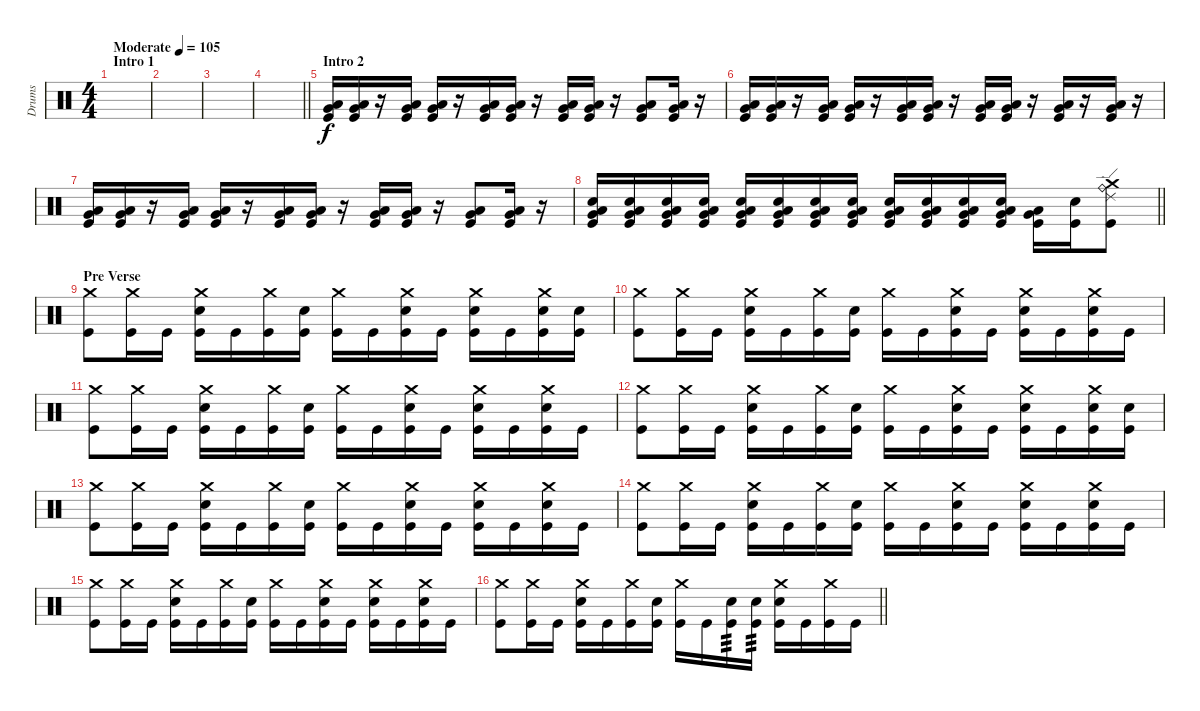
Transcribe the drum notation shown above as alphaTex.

\track ("Drums" "Drums") {instrument percussion}
\staff {score}
\articulation defaults
\ts (4 4)
\section ("" "Intro 1")
\tempo (105 "Moderate")
\clef neutral
\ks c
|
|
|
\barLineRight lightlight
|
\section ("" "Intro 2")
("Very Low Tom (hit)" "Low Floor Tom (hit)" "Kick (hit)").16 ("Very Low Tom (hit)" "Low Floor Tom (hit)" "Kick (hit)").16 r.16 ("Very Low Tom (hit)" "Low Floor Tom (hit)" "Kick (hit)").16 ("Very Low Tom (hit)" "Low Floor Tom (hit)" "Kick (hit)").16 r.16 ("Very Low Tom (hit)" "Low Floor Tom (hit)" "Kick (hit)").16 ("Very Low Tom (hit)" "Low Floor Tom (hit)" "Kick (hit)").16 r.16 ("Very Low Tom (hit)" "Low Floor Tom (hit)" "Kick (hit)").16 ("Very Low Tom (hit)" "Low Floor Tom (hit)" "Kick (hit)").16 r.16 ("Very Low Tom (hit)" "Low Floor Tom (hit)" "Kick (hit)").8 ("Very Low Tom (hit)" "Low Floor Tom (hit)" "Kick (hit)").16 r.16 |
("Very Low Tom (hit)" "Low Floor Tom (hit)" "Kick (hit)").16 ("Very Low Tom (hit)" "Low Floor Tom (hit)" "Kick (hit)").16 r.16 ("Very Low Tom (hit)" "Low Floor Tom (hit)" "Kick (hit)").16 ("Very Low Tom (hit)" "Low Floor Tom (hit)" "Kick (hit)").16 r.16 ("Very Low Tom (hit)" "Low Floor Tom (hit)" "Kick (hit)").16 ("Very Low Tom (hit)" "Low Floor Tom (hit)" "Kick (hit)").16 r.16 ("Very Low Tom (hit)" "Low Floor Tom (hit)" "Kick (hit)").16 ("Very Low Tom (hit)" "Low Floor Tom (hit)" "Kick (hit)").16 r.16 ("Very Low Tom (hit)" "Low Floor Tom (hit)" "Kick (hit)").16 r.16 ("Very Low Tom (hit)" "Low Floor Tom (hit)" "Kick (hit)").16 r.16 |
("Very Low Tom (hit)" "Low Floor Tom (hit)" "Kick (hit)").16 ("Very Low Tom (hit)" "Low Floor Tom (hit)" "Kick (hit)").16 r.16 ("Very Low Tom (hit)" "Low Floor Tom (hit)" "Kick (hit)").16 ("Very Low Tom (hit)" "Low Floor Tom (hit)" "Kick (hit)").16 r.16 ("Very Low Tom (hit)" "Low Floor Tom (hit)" "Kick (hit)").16 ("Very Low Tom (hit)" "Low Floor Tom (hit)" "Kick (hit)").16 r.16 ("Very Low Tom (hit)" "Low Floor Tom (hit)" "Kick (hit)").16 ("Very Low Tom (hit)" "Low Floor Tom (hit)" "Kick (hit)").16 r.16 ("Very Low Tom (hit)" "Low Floor Tom (hit)" "Kick (hit)").8 ("Very Low Tom (hit)" "Low Floor Tom (hit)" "Kick (hit)").16 r.16{volume 4} |
\barLineRight lightlight
("Very Low Tom (hit)" "Low Floor Tom (hit)" "Snare (hit) 2" "Kick (hit)").16{volume 16} ("Very Low Tom (hit)" "Low Floor Tom (hit)" "Snare (hit) 2" "Kick (hit)").16 ("Very Low Tom (hit)" "Low Floor Tom (hit)" "Snare (hit) 2" "Kick (hit)").16 ("Very Low Tom (hit)" "Low Floor Tom (hit)" "Snare (hit) 2" "Kick (hit)").16 ("Very Low Tom (hit)" "Low Floor Tom (hit)" "Snare (hit) 2" "Kick (hit)").16 ("Very Low Tom (hit)" "Low Floor Tom (hit)" "Snare (hit) 2" "Kick (hit)").16 ("Very Low Tom (hit)" "Low Floor Tom (hit)" "Snare (hit) 2" "Kick (hit)").16 ("Very Low Tom (hit)" "Low Floor Tom (hit)" "Snare (hit) 2" "Kick (hit)").16 ("Very Low Tom (hit)" "Low Floor Tom (hit)" "Snare (hit) 2" "Kick (hit)").16 ("Very Low Tom (hit)" "Low Floor Tom (hit)" "Snare (hit) 2" "Kick (hit)").16 ("Very Low Tom (hit)" "Low Floor Tom (hit)" "Snare (hit) 2" "Kick (hit)").16 ("Very Low Tom (hit)" "Low Floor Tom (hit)" "Snare (hit) 2" "Kick (hit)").16 ("Very Low Tom (hit)" "Low Floor Tom (hit)" "Kick (hit)").16 ("Snare (hit) 2" "Kick (hit)").16 ("Ride (edge) 2" "Crash medium (hit)" "Ride (bell)" "Kick (hit)").8 |
\section ("" "Pre Verse")
("Crash medium (hit)" "Kick (hit)").8 ("Crash medium (hit)" "Kick (hit)").16 "Kick (hit)".16 ("Crash medium (hit)" "Snare (hit) 2" "Kick (hit)").16 "Kick (hit)".16 ("Crash medium (hit)" "Kick (hit)").16 ("Snare (hit) 2" "Kick (hit)").16 ("Crash medium (hit)" "Kick (hit)").16 "Kick (hit)".16 ("Crash medium (hit)" "Snare (hit) 2" "Kick (hit)").16 "Kick (hit)".16 ("Crash medium (hit)" "Snare (hit) 2" "Kick (hit)").16 "Kick (hit)".16 ("Crash medium (hit)" "Snare (hit) 2" "Kick (hit)").16 ("Snare (hit) 2" "Kick (hit)").16 |
("Crash medium (hit)" "Kick (hit)").8 ("Crash medium (hit)" "Kick (hit)").16 "Kick (hit)".16 ("Crash medium (hit)" "Snare (hit) 2" "Kick (hit)").16 "Kick (hit)".16 ("Crash medium (hit)" "Kick (hit)").16 ("Snare (hit) 2" "Kick (hit)").16 ("Crash medium (hit)" "Kick (hit)").16 "Kick (hit)".16 ("Crash medium (hit)" "Snare (hit) 2" "Kick (hit)").16 "Kick (hit)".16 ("Crash medium (hit)" "Snare (hit) 2" "Kick (hit)").16 "Kick (hit)".16 ("Crash medium (hit)" "Snare (hit) 2" "Kick (hit)").16 "Kick (hit)".16 |
("Crash medium (hit)" "Kick (hit)").8 ("Crash medium (hit)" "Kick (hit)").16 "Kick (hit)".16 ("Crash medium (hit)" "Snare (hit) 2" "Kick (hit)").16 "Kick (hit)".16 ("Crash medium (hit)" "Kick (hit)").16 ("Snare (hit) 2" "Kick (hit)").16 ("Crash medium (hit)" "Kick (hit)").16 "Kick (hit)".16 ("Crash medium (hit)" "Snare (hit) 2" "Kick (hit)").16 "Kick (hit)".16 ("Crash medium (hit)" "Snare (hit) 2" "Kick (hit)").16 "Kick (hit)".16 ("Crash medium (hit)" "Snare (hit) 2" "Kick (hit)").16 "Kick (hit)".16 |
("Crash medium (hit)" "Kick (hit)").8 ("Crash medium (hit)" "Kick (hit)").16 "Kick (hit)".16 ("Crash medium (hit)" "Snare (hit) 2" "Kick (hit)").16 "Kick (hit)".16 ("Crash medium (hit)" "Kick (hit)").16 ("Snare (hit) 2" "Kick (hit)").16 ("Crash medium (hit)" "Kick (hit)").16 "Kick (hit)".16 ("Crash medium (hit)" "Snare (hit) 2" "Kick (hit)").16 "Kick (hit)".16 ("Crash medium (hit)" "Snare (hit) 2" "Kick (hit)").16 "Kick (hit)".16 ("Crash medium (hit)" "Snare (hit) 2" "Kick (hit)").16 ("Snare (hit) 2" "Kick (hit)").16 |
("Crash medium (hit)" "Kick (hit)").8 ("Crash medium (hit)" "Kick (hit)").16 "Kick (hit)".16 ("Crash medium (hit)" "Snare (hit) 2" "Kick (hit)").16 "Kick (hit)".16 ("Crash medium (hit)" "Kick (hit)").16 ("Snare (hit) 2" "Kick (hit)").16 ("Crash medium (hit)" "Kick (hit)").16 "Kick (hit)".16 ("Crash medium (hit)" "Snare (hit) 2" "Kick (hit)").16 "Kick (hit)".16 ("Crash medium (hit)" "Snare (hit) 2" "Kick (hit)").16 "Kick (hit)".16 ("Crash medium (hit)" "Snare (hit) 2" "Kick (hit)").16 "Kick (hit)".16 |
("Crash medium (hit)" "Kick (hit)").8 ("Crash medium (hit)" "Kick (hit)").16 "Kick (hit)".16 ("Crash medium (hit)" "Snare (hit) 2" "Kick (hit)").16 "Kick (hit)".16 ("Crash medium (hit)" "Kick (hit)").16 ("Snare (hit) 2" "Kick (hit)").16 ("Crash medium (hit)" "Kick (hit)").16 "Kick (hit)".16 ("Crash medium (hit)" "Snare (hit) 2" "Kick (hit)").16 "Kick (hit)".16 ("Crash medium (hit)" "Snare (hit) 2" "Kick (hit)").16 "Kick (hit)".16 ("Crash medium (hit)" "Snare (hit) 2" "Kick (hit)").16 "Kick (hit)".16 |
("Crash medium (hit)" "Kick (hit)").8 ("Crash medium (hit)" "Kick (hit)").16 "Kick (hit)".16 ("Crash medium (hit)" "Snare (hit) 2" "Kick (hit)").16 "Kick (hit)".16 ("Crash medium (hit)" "Kick (hit)").16 ("Snare (hit) 2" "Kick (hit)").16 ("Crash medium (hit)" "Kick (hit)").16 "Kick (hit)".16 ("Crash medium (hit)" "Snare (hit) 2" "Kick (hit)").16 "Kick (hit)".16 ("Crash medium (hit)" "Snare (hit) 2" "Kick (hit)").16 "Kick (hit)".16 ("Crash medium (hit)" "Snare (hit) 2" "Kick (hit)").16 "Kick (hit)".16 |
\barLineRight lightlight
("Crash medium (hit)" "Kick (hit)").8 ("Crash medium (hit)" "Kick (hit)").16 "Kick (hit)".16 ("Crash medium (hit)" "Snare (hit) 2" "Kick (hit)").16 "Kick (hit)".16 ("Crash medium (hit)" "Kick (hit)").16 ("Snare (hit) 2" "Kick (hit)").16 ("Crash medium (hit)" "Kick (hit)").16 "Kick (hit)".16 ("Snare (hit) 2" "Kick (hit)").16{tp 3} ("Snare (hit) 2" "Kick (hit)").16{tp 3} ("Crash medium (hit)" "Snare (hit) 2" "Kick (hit)").16 "Kick (hit)".16 ("Crash medium (hit)" "Kick (hit)").16 "Kick (hit)".16
